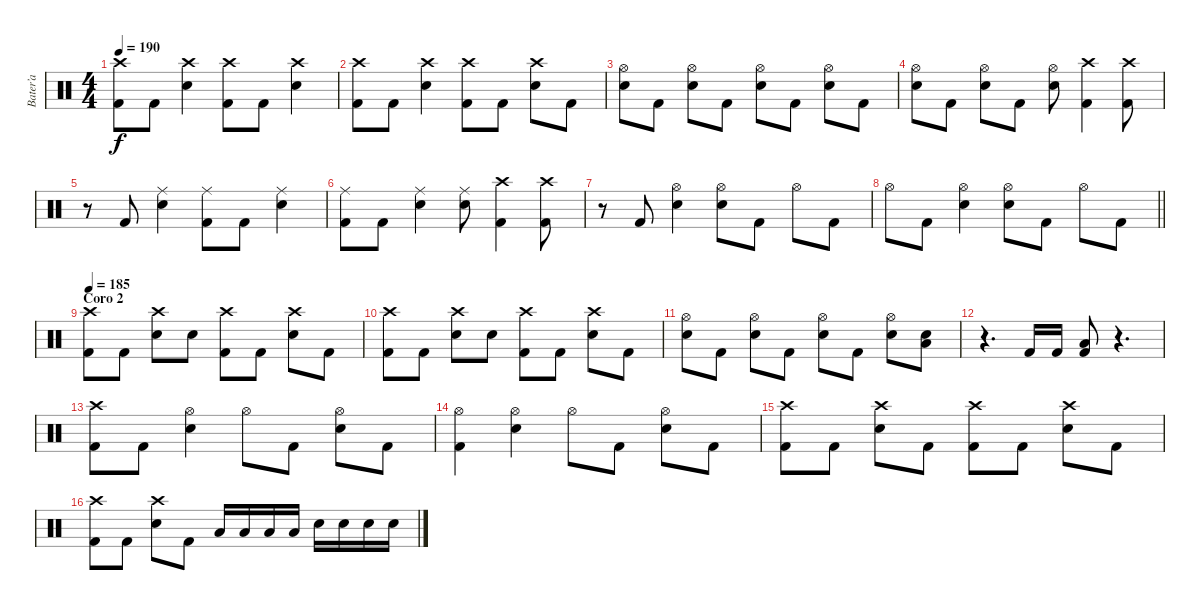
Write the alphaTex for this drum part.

\track ("Bater’a" "Bater’a") {instrument percussion}
\staff {score}
\articulation defaults
\ts (4 4)
\tempo 190
\clef neutral
\ks c
("Crash high (hit)" "Kick (hit) 2").8{dy f} "Kick (hit) 2".8 ("Crash high (hit)" "Electric Snare (hit)").4 ("Crash high (hit)" "Kick (hit) 2").8 "Kick (hit) 2".8 ("Crash high (hit)" "Electric Snare (hit)").4 |
("Crash high (hit)" "Kick (hit) 2").8 "Kick (hit) 2".8 ("Crash high (hit)" "Electric Snare (hit)").4 ("Crash high (hit)" "Kick (hit) 2").8 "Kick (hit) 2".8 ("Crash high (hit)" "Electric Snare (hit)").8 "Kick (hit) 2".8 |
("Hi-Hat (open)" "Electric Snare (hit)").8 "Kick (hit) 2".8 ("Hi-Hat (open)" "Electric Snare (hit)").8 "Kick (hit) 2".8 ("Hi-Hat (open)" "Electric Snare (hit)").8 "Kick (hit) 2".8 ("Hi-Hat (open)" "Electric Snare (hit)").8 "Kick (hit) 2".8 |
("Hi-Hat (open)" "Electric Snare (hit)").8 "Kick (hit) 2".8 ("Hi-Hat (open)" "Electric Snare (hit)").8 "Kick (hit) 2".8 ("Hi-Hat (open)" "Electric Snare (hit)").8 ("Crash high (hit)" "Kick (hit) 2").4 ("Crash high (hit)" "Kick (hit) 2").8 |
r.8 "Kick (hit) 2".8 ("Ride (middle)" "Electric Snare (hit)").4 ("Ride (middle)" "Kick (hit) 2").8 "Kick (hit) 2".8 ("Ride (middle)" "Electric Snare (hit)").4 |
("Ride (middle)" "Kick (hit) 2").8 "Kick (hit) 2".8 ("Ride (middle)" "Electric Snare (hit)").4 ("Ride (middle)" "Electric Snare (hit)").8 ("Crash high (hit)" "Kick (hit) 2").4 ("Crash high (hit)" "Kick (hit) 2").8 |
r.8 "Kick (hit) 2".8 ("Hi-Hat (open)" "Electric Snare (hit)").4 ("Hi-Hat (open)" "Electric Snare (hit)").8 "Kick (hit) 2".8 "Hi-Hat (open)".8 "Kick (hit) 2".8 |
\barLineRight lightlight "Hi-Hat (open)".8 "Kick (hit) 2".8
("Hi-Hat (open)" "Electric Snare (hit)").4 ("Hi-Hat (open)" "Electric Snare (hit)").8 "Kick (hit) 2".8 "Hi-Hat (open)".8 "Kick (hit) 2".8 |
\section ("" "Coro 2")
\tempo 185
("Crash high (hit)" "Kick (hit) 2").8 "Kick (hit) 2".8 ("Crash high (hit)" "Electric Snare (hit)").8 "Electric Snare (hit)".8 ("Crash high (hit)" "Kick (hit) 2").8 "Kick (hit) 2".8 ("Crash high (hit)" "Electric Snare (hit)").8 "Kick (hit) 2".8 |
("Crash high (hit)" "Kick (hit) 2").8 "Kick (hit) 2".8 ("Crash high (hit)" "Electric Snare (hit)").8 "Electric Snare (hit)".8 ("Crash high (hit)" "Kick (hit) 2").8 "Kick (hit) 2".8 ("Crash high (hit)" "Electric Snare (hit)").8 "Kick (hit) 2".8 |
("Hi-Hat (open)" "Electric Snare (hit)").8 "Kick (hit) 2".8 ("Hi-Hat (open)" "Electric Snare (hit)").8 "Kick (hit) 2".8 ("Hi-Hat (open)" "Electric Snare (hit)").8 "Kick (hit) 2".8 ("Hi-Hat (open)" "Electric Snare (hit)").8 ("Low Floor Tom (hit)" "Electric Snare (hit)").8 |
r.4{d} "Kick (hit) 2".16 "Kick (hit) 2".16 ("Low Floor Tom (hit)" "Kick (hit) 2").8 r.4{d} |
("Crash high (hit)" "Kick (hit) 2").8 "Kick (hit) 2".8 ("Hi-Hat (open)" "Electric Snare (hit)").4 "Hi-Hat (open)".8 "Kick (hit) 2".8 ("Hi-Hat (open)" "Electric Snare (hit)").8 "Kick (hit) 2".8 |
("Hi-Hat (open)" "Kick (hit) 2").4 ("Hi-Hat (open)" "Electric Snare (hit)").4 "Hi-Hat (open)".8 "Kick (hit) 2".8 ("Hi-Hat (open)" "Electric Snare (hit)").8 "Kick (hit) 2".8 |
("Crash high (hit)" "Kick (hit) 2").8 "Kick (hit) 2".8 ("Crash high (hit)" "Electric Snare (hit)").8 "Kick (hit) 2".8 ("Crash high (hit)" "Kick (hit) 2").8 "Kick (hit) 2".8 ("Crash high (hit)" "Electric Snare (hit)").8 "Kick (hit) 2".8 |
("Crash high (hit)" "Kick (hit) 2").8 "Kick (hit) 2".8 ("Crash high (hit)" "Electric Snare (hit)").8 "Kick (hit) 2".8 "Low Tom (hit)".16 "Low Tom (hit)".16 "Low Tom (hit)".16 "Low Tom (hit)".16 "Electric Snare (hit)".16 "Electric Snare (hit)".16 "Electric Snare (hit)".16 "Electric Snare (hit)".16
